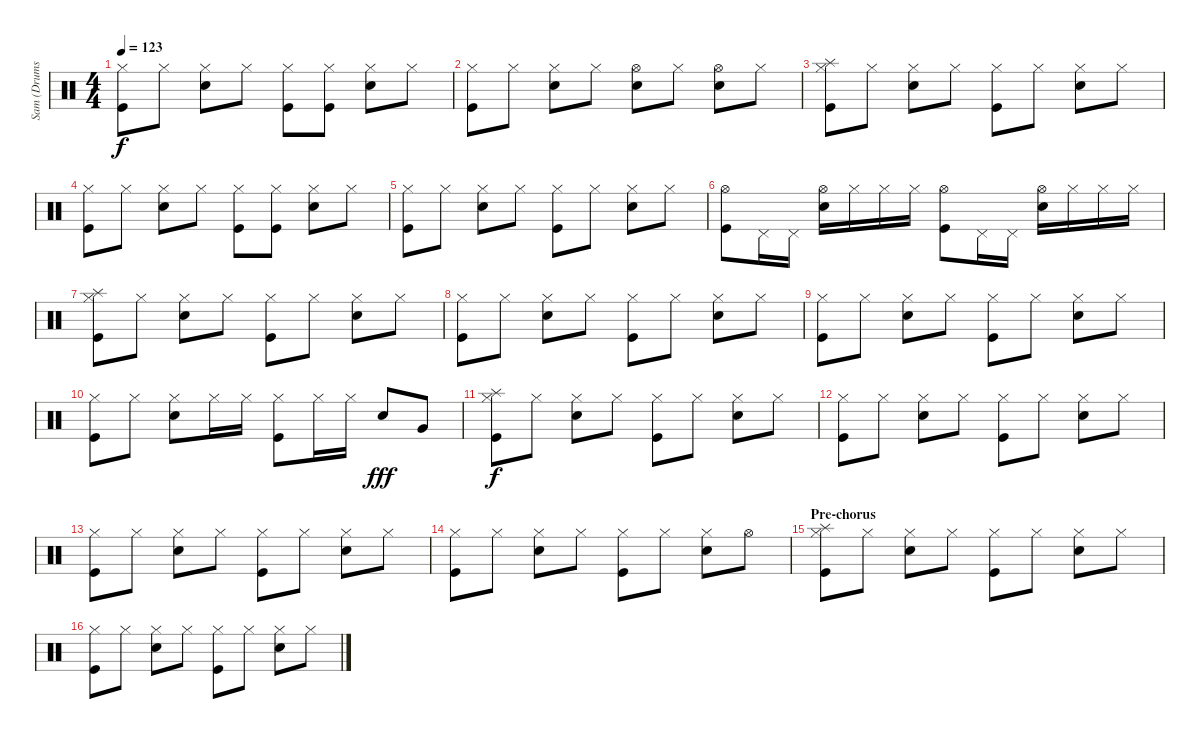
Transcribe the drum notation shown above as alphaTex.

\track ("Sam (Drums)" "Sam (Drums") {instrument percussion}
\staff {score}
\articulation defaults
\ts (4 4)
\tempo 123
\clef neutral
\ks c
("Hi-Hat (closed)" "Kick (hit)").8{dy f} "Hi-Hat (closed)".8 ("Hi-Hat (closed)" "Snare (hit) 2").8 "Hi-Hat (closed)".8 ("Hi-Hat (closed)" "Kick (hit)").8 ("Hi-Hat (closed)" "Kick (hit)").8 ("Hi-Hat (closed)" "Snare (hit) 2").8 "Hi-Hat (closed)".8 |
("Hi-Hat (closed)" "Kick (hit)").8 "Hi-Hat (closed)".8 ("Hi-Hat (closed)" "Snare (hit) 2").8 "Hi-Hat (closed)".8 ("Hi-Hat (open)" "Snare (hit) 2").8 "Hi-Hat (closed)".8 ("Hi-Hat (open)" "Snare (hit) 2").8 "Hi-Hat (closed)".8 |
("Splash (hit)" "Hi-Hat (closed)" "Kick (hit)").8 "Hi-Hat (closed)".8 ("Hi-Hat (closed)" "Snare (hit) 2").8 "Hi-Hat (closed)".8 ("Hi-Hat (closed)" "Kick (hit)").8 "Hi-Hat (closed)".8 ("Hi-Hat (closed)" "Snare (hit) 2").8 "Hi-Hat (closed)".8 |
("Hi-Hat (closed)" "Kick (hit)").8 "Hi-Hat (closed)".8 ("Hi-Hat (closed)" "Snare (hit) 2").8 "Hi-Hat (closed)".8 ("Hi-Hat (closed)" "Kick (hit)").8 ("Hi-Hat (closed)" "Kick (hit)").8 ("Hi-Hat (closed)" "Snare (hit) 2").8 "Hi-Hat (closed)".8 |
("Hi-Hat (closed)" "Kick (hit)").8 "Hi-Hat (closed)".8 ("Hi-Hat (closed)" "Snare (hit) 2").8 "Hi-Hat (closed)".8 ("Hi-Hat (closed)" "Kick (hit)").8 "Hi-Hat (closed)".8 ("Hi-Hat (closed)" "Snare (hit) 2").8 "Hi-Hat (closed)".8 |
("Hi-Hat (open)" "Kick (hit)").8 "Pedal Hi-Hat (hit)".16 "Pedal Hi-Hat (hit)".16 ("Hi-Hat (open)" "Snare (hit) 2").16 "Hi-Hat (closed)".16 "Hi-Hat (closed)".16 "Hi-Hat (closed)".16 ("Hi-Hat (open)" "Kick (hit)").8 "Pedal Hi-Hat (hit)".16 "Pedal Hi-Hat (hit)".16 ("Hi-Hat (open)" "Snare (hit) 2").16 "Hi-Hat (closed)".16 "Hi-Hat (closed)".16 "Hi-Hat (closed)".16 |
("Splash (hit)" "Hi-Hat (closed)" "Kick (hit)").8 "Hi-Hat (closed)".8 ("Hi-Hat (closed)" "Snare (hit) 2").8 "Hi-Hat (closed)".8 ("Hi-Hat (closed)" "Kick (hit)").8 "Hi-Hat (closed)".8 ("Hi-Hat (closed)" "Snare (hit) 2").8 "Hi-Hat (closed)".8 |
("Hi-Hat (closed)" "Kick (hit)").8 "Hi-Hat (closed)".8 ("Hi-Hat (closed)" "Snare (hit) 2").8 "Hi-Hat (closed)".8 ("Hi-Hat (closed)" "Kick (hit)").8 "Hi-Hat (closed)".8 ("Hi-Hat (closed)" "Snare (hit) 2").8 "Hi-Hat (closed)".8 |
("Hi-Hat (closed)" "Kick (hit)").8 "Hi-Hat (closed)".8 ("Hi-Hat (closed)" "Snare (hit) 2").8 "Hi-Hat (closed)".8 ("Hi-Hat (closed)" "Kick (hit)").8 "Hi-Hat (closed)".8 ("Hi-Hat (closed)" "Snare (hit) 2").8 "Hi-Hat (closed)".8 |
("Hi-Hat (closed)" "Kick (hit)").8 "Hi-Hat (closed)".8 ("Hi-Hat (closed)" "Snare (hit) 2").8 "Hi-Hat (closed)".16 "Hi-Hat (closed)".16 ("Hi-Hat (closed)" "Kick (hit)").8 "Hi-Hat (closed)".16 "Hi-Hat (closed)".16 "Snare (hit) 2".8{dy fff} "Very Low Tom (hit)".8 |
("Splash (hit)" "Hi-Hat (closed)" "Kick (hit)").8{dy f} "Hi-Hat (closed)".8 ("Hi-Hat (closed)" "Snare (hit) 2").8 "Hi-Hat (closed)".8 ("Hi-Hat (closed)" "Kick (hit)").8 "Hi-Hat (closed)".8 ("Hi-Hat (closed)" "Snare (hit) 2").8 "Hi-Hat (closed)".8 |
("Hi-Hat (closed)" "Kick (hit)").8 "Hi-Hat (closed)".8 ("Hi-Hat (closed)" "Snare (hit) 2").8 "Hi-Hat (closed)".8 ("Hi-Hat (closed)" "Kick (hit)").8 "Hi-Hat (closed)".8 ("Hi-Hat (closed)" "Snare (hit) 2").8 "Hi-Hat (closed)".8 |
("Hi-Hat (closed)" "Kick (hit)").8 "Hi-Hat (closed)".8 ("Hi-Hat (closed)" "Snare (hit) 2").8 "Hi-Hat (closed)".8 ("Hi-Hat (closed)" "Kick (hit)").8 "Hi-Hat (closed)".8 ("Hi-Hat (closed)" "Snare (hit) 2").8 "Hi-Hat (closed)".8 |
("Hi-Hat (closed)" "Kick (hit)").8 "Hi-Hat (closed)".8 ("Hi-Hat (closed)" "Snare (hit) 2").8 "Hi-Hat (closed)".8 ("Hi-Hat (closed)" "Kick (hit)").8 "Hi-Hat (closed)".8 ("Hi-Hat (closed)" "Snare (hit) 2").8 "Hi-Hat (open)".8 |
\section ("" "Pre-chorus")
("Splash (hit)" "Hi-Hat (closed)" "Kick (hit)").8 "Hi-Hat (closed)".8 ("Hi-Hat (closed)" "Snare (hit) 2").8 "Hi-Hat (closed)".8 ("Hi-Hat (closed)" "Kick (hit)").8 "Hi-Hat (closed)".8 ("Hi-Hat (closed)" "Snare (hit) 2").8 "Hi-Hat (closed)".8 |
("Hi-Hat (closed)" "Kick (hit)").8 "Hi-Hat (closed)".8 ("Hi-Hat (closed)" "Snare (hit) 2").8 "Hi-Hat (closed)".8 ("Hi-Hat (closed)" "Kick (hit)").8 "Hi-Hat (closed)".8 ("Hi-Hat (closed)" "Snare (hit) 2").8 "Hi-Hat (closed)".8
